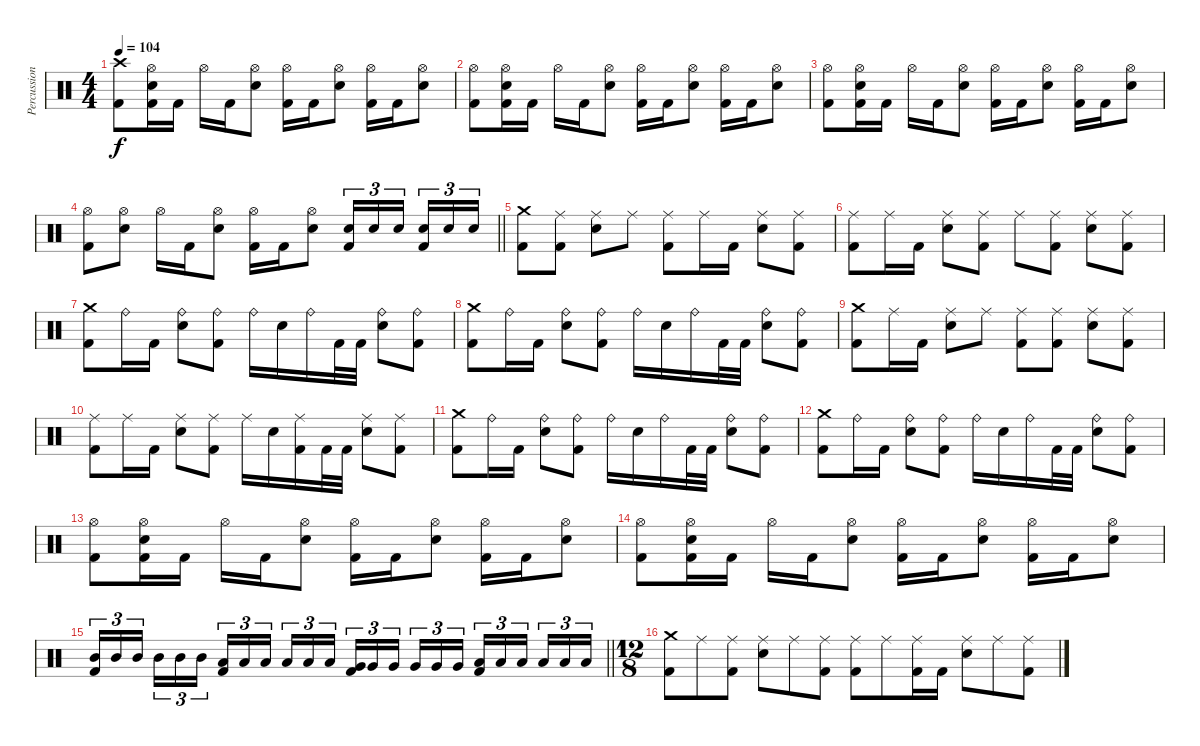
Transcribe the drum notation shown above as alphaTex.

\track ("Percussion" "Percussion") {instrument percussion}
\staff {score}
\articulation defaults
\ts (4 4)
\tempo 104
\clef neutral
\ks c
("Crash high (hit)" "Kick (hit) 2").8{dy f} ("Hi-Hat (open)" "Electric Snare (hit)" "Kick (hit) 2").16 "Kick (hit) 2".16 "Hi-Hat (open)".16 "Kick (hit) 2".16 ("Hi-Hat (open)" "Electric Snare (hit)").8 ("Hi-Hat (open)" "Kick (hit) 2").16 "Kick (hit) 2".16 ("Hi-Hat (open)" "Electric Snare (hit)").8 ("Hi-Hat (open)" "Kick (hit) 2").16 "Kick (hit) 2".16 ("Hi-Hat (open)" "Electric Snare (hit)").8 |
("Hi-Hat (open)" "Kick (hit) 2").8 ("Hi-Hat (open)" "Electric Snare (hit)" "Kick (hit) 2").16 "Kick (hit) 2".16 "Hi-Hat (open)".16 "Kick (hit) 2".16 ("Hi-Hat (open)" "Electric Snare (hit)").8 ("Hi-Hat (open)" "Kick (hit) 2").16 "Kick (hit) 2".16 ("Hi-Hat (open)" "Electric Snare (hit)").8 ("Hi-Hat (open)" "Kick (hit) 2").16 "Kick (hit) 2".16 ("Hi-Hat (open)" "Electric Snare (hit)").8 |
("Hi-Hat (open)" "Kick (hit) 2").8 ("Hi-Hat (open)" "Electric Snare (hit)" "Kick (hit) 2").16 "Kick (hit) 2".16 "Hi-Hat (open)".16 "Kick (hit) 2".16 ("Hi-Hat (open)" "Electric Snare (hit)").8 ("Hi-Hat (open)" "Kick (hit) 2").16 "Kick (hit) 2".16 ("Hi-Hat (open)" "Electric Snare (hit)").8 ("Hi-Hat (open)" "Kick (hit) 2").16 "Kick (hit) 2".16 ("Hi-Hat (open)" "Electric Snare (hit)").8 |
\barLineRight lightlight
("Hi-Hat (open)" "Kick (hit) 2").8 ("Hi-Hat (open)" "Electric Snare (hit)").8 "Hi-Hat (open)".16 "Kick (hit) 2".16 ("Hi-Hat (open)" "Electric Snare (hit)").8 ("Hi-Hat (open)" "Kick (hit) 2").16 "Kick (hit) 2".16 ("Hi-Hat (open)" "Electric Snare (hit)").8 ("Electric Snare (hit)" "Kick (hit) 2").16{tu (3 2)} "Electric Snare (hit)".16{tu (3 2)} "Electric Snare (hit)".16{tu (3 2) beam splitsecondary} ("Electric Snare (hit)" "Kick (hit) 2").16{tu (3 2)} "Electric Snare (hit)".16{tu (3 2)} "Electric Snare (hit)".16{tu (3 2)} |
("Crash medium (hit)" "Kick (hit) 2").8 ("Ride (middle)" "Kick (hit) 2").8 ("Ride (middle)" "Electric Snare (hit)").8 "Ride (middle)".8 ("Ride (middle)" "Kick (hit) 2").8 "Ride (middle)".16 "Kick (hit) 2".16 ("Ride (middle)" "Electric Snare (hit)").8 ("Ride (middle)" "Kick (hit) 2").8 |
("Ride (middle)" "Kick (hit) 2").8 "Ride (middle)".16 "Kick (hit) 2".16 ("Ride (middle)" "Electric Snare (hit)").8 ("Ride (middle)" "Kick (hit) 2").8 "Ride (middle)".8 ("Ride (middle)" "Kick (hit) 2").8 ("Ride (middle)" "Electric Snare (hit)").8 ("Ride (middle)" "Kick (hit) 2").8 |
("Crash medium (hit)" "Kick (hit) 2").8 "Ride (bell)".16 "Kick (hit) 2".16 ("Ride (bell)" "Electric Snare (hit)").8 ("Ride (bell)" "Kick (hit) 2").8 "Ride (bell)".16 "Electric Snare (hit)".16 "Ride (bell)".16 "Kick (hit) 2".32 "Kick (hit) 2".32 ("Ride (bell)" "Electric Snare (hit)").8 ("Ride (bell)" "Kick (hit) 2").8 |
("Crash medium (hit)" "Kick (hit) 2").8 "Ride (bell)".16 "Kick (hit) 2".16 ("Ride (bell)" "Electric Snare (hit)").8 ("Ride (bell)" "Kick (hit) 2").8 "Ride (bell)".16 "Electric Snare (hit)".16 "Ride (bell)".16 "Kick (hit) 2".32 "Kick (hit) 2".32 ("Ride (bell)" "Electric Snare (hit)").8 ("Ride (bell)" "Kick (hit) 2").8 |
("Crash medium (hit)" "Kick (hit) 2").8 "Ride (middle)".16 "Kick (hit) 2".16 ("Ride (middle)" "Electric Snare (hit)").8 "Ride (middle)".8 ("Ride (middle)" "Kick (hit) 2").8 ("Ride (middle)" "Kick (hit) 2").8 ("Ride (middle)" "Electric Snare (hit)").8 ("Ride (middle)" "Kick (hit) 2").8 |
("Ride (middle)" "Kick (hit) 2").8 "Ride (middle)".16 "Kick (hit) 2".16 ("Ride (middle)" "Electric Snare (hit)").8 ("Ride (middle)" "Kick (hit) 2").8 "Ride (middle)".16 "Electric Snare (hit)".16 ("Ride (middle)" "Kick (hit) 2").16 "Kick (hit) 2".32 "Kick (hit) 2".32 ("Ride (middle)" "Electric Snare (hit)").8 ("Ride (middle)" "Kick (hit) 2").8 |
("Crash medium (hit)" "Kick (hit) 2").8 "Ride (bell)".16 "Kick (hit) 2".16 ("Ride (bell)" "Electric Snare (hit)").8 ("Ride (bell)" "Kick (hit) 2").8 "Ride (bell)".16 "Electric Snare (hit)".16 "Ride (bell)".16 "Kick (hit) 2".32 "Kick (hit) 2".32 ("Ride (bell)" "Electric Snare (hit)").8 ("Ride (bell)" "Kick (hit) 2").8 |
("Crash medium (hit)" "Kick (hit) 2").8 "Ride (bell)".16 "Kick (hit) 2".16 ("Ride (bell)" "Electric Snare (hit)").8 ("Ride (bell)" "Kick (hit) 2").8 "Ride (bell)".16 "Electric Snare (hit)".16 "Ride (bell)".16 "Kick (hit) 2".32 "Kick (hit) 2".32 ("Ride (bell)" "Electric Snare (hit)").8 ("Ride (bell)" "Kick (hit) 2").8 |
("Hi-Hat (open)" "Kick (hit) 2").8 ("Hi-Hat (open)" "Electric Snare (hit)" "Kick (hit) 2").16 "Kick (hit) 2".16 "Hi-Hat (open)".16 "Kick (hit) 2".16 ("Hi-Hat (open)" "Electric Snare (hit)").8 ("Hi-Hat (open)" "Kick (hit) 2").16 "Kick (hit) 2".16 ("Hi-Hat (open)" "Electric Snare (hit)").8 ("Hi-Hat (open)" "Kick (hit) 2").16 "Kick (hit) 2".16 ("Hi-Hat (open)" "Electric Snare (hit)").8 |
("Hi-Hat (open)" "Kick (hit) 2").8 ("Hi-Hat (open)" "Electric Snare (hit)" "Kick (hit) 2").16 "Kick (hit) 2".16 "Hi-Hat (open)".16 "Kick (hit) 2".16 ("Hi-Hat (open)" "Electric Snare (hit)").8 ("Hi-Hat (open)" "Kick (hit) 2").16 "Kick (hit) 2".16 ("Hi-Hat (open)" "Electric Snare (hit)").8 ("Hi-Hat (open)" "Kick (hit) 2").16 "Kick (hit) 2".16 ("Hi-Hat (open)" "Electric Snare (hit)").8 |
\barLineRight lightlight
("Mid Tom (hit)" "Kick (hit) 2").16{tu (3 2)} "Mid Tom (hit)".16{tu (3 2)} "Mid Tom (hit)".16{tu (3 2) beam splitsecondary} "Mid Tom (hit)".16{tu (3 2)} "Mid Tom (hit)".16{tu (3 2)} "Mid Tom (hit)".16{tu (3 2)} ("Low Tom (hit)" "Kick (hit) 2").16{tu (3 2)} "Low Tom (hit)".16{tu (3 2)} "Low Tom (hit)".16{tu (3 2) beam splitsecondary} "Low Tom (hit)".16{tu (3 2)} "Low Tom (hit)".16{tu (3 2)} "Low Tom (hit)".16{tu (3 2)} ("Very Low Tom (hit)" "Kick (hit) 2").16{tu (3 2)} "Very Low Tom (hit)".16{tu (3 2)} "Very Low Tom (hit)".16{tu (3 2) beam splitsecondary} "Very Low Tom (hit)".16{tu (3 2)} "Very Low Tom (hit)".16{tu (3 2)} "Very Low Tom (hit)".16{tu (3 2)} ("Low Floor Tom (hit)" "Kick (hit) 2").16{tu (3 2)} "Low Floor Tom (hit)".16{tu (3 2)} "Low Floor Tom (hit)".16{tu (3 2) beam splitsecondary} "Low Floor Tom (hit)".16{tu (3 2)} "Low Floor Tom (hit)".16{tu (3 2)} "Low Floor Tom (hit)".16{tu (3 2)} |
\ts (12 8)
("Crash medium (hit)" "Kick (hit) 2").8 "Ride (middle)".8 ("Ride (middle)" "Kick (hit) 2").8 ("Ride (middle)" "Electric Snare (hit)").8 "Ride (middle)".8 ("Ride (middle)" "Kick (hit) 2").8 ("Ride (middle)" "Kick (hit) 2").8 "Ride (middle)".8 ("Ride (middle)" "Kick (hit) 2").16 "Kick (hit) 2".16 ("Ride (middle)" "Electric Snare (hit)").8 "Ride (middle)".8 ("Ride (middle)" "Kick (hit) 2").8
